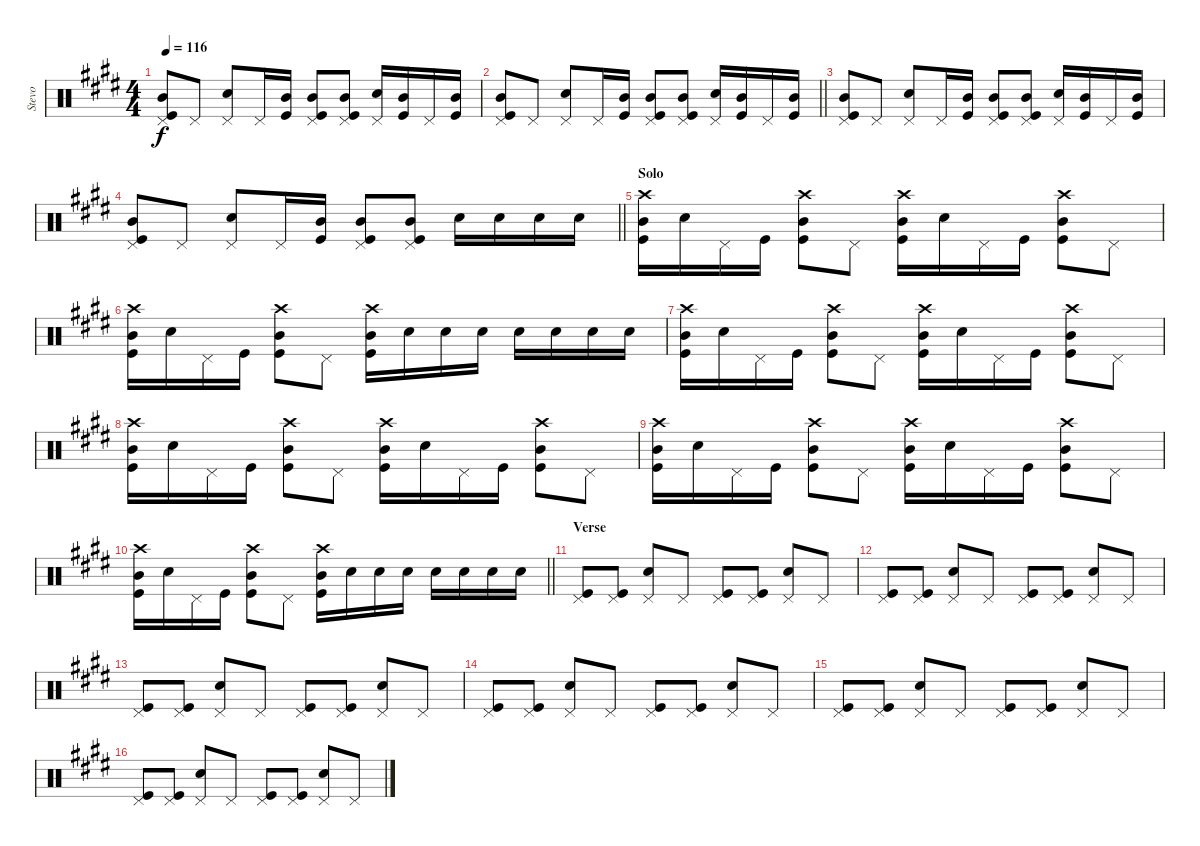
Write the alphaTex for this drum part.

\track ("Stevo" "Stevo") {instrument percussion}
\staff {score}
\articulation defaults
\ts (4 4)
\tempo 116
\clef neutral
\ks e
("Kick (hit)" "Pedal Hi-Hat (hit)" "Mid Tom (hit)").8{dy f} "Pedal Hi-Hat (hit)".8 ("Electric Snare (hit)" "Pedal Hi-Hat (hit)").8 "Pedal Hi-Hat (hit)".16 ("Kick (hit)" "Mid Tom (hit)").16 ("Kick (hit)" "Pedal Hi-Hat (hit)" "Mid Tom (hit)").8 ("Kick (hit)" "Pedal Hi-Hat (hit)" "Mid Tom (hit)").8 ("Electric Snare (hit)" "Pedal Hi-Hat (hit)").16 ("Kick (hit)" "Mid Tom (hit)").16 "Pedal Hi-Hat (hit)".16 ("Kick (hit)" "Mid Tom (hit)").16 |
\barLineRight lightlight
("Kick (hit)" "Pedal Hi-Hat (hit)" "Mid Tom (hit)").8 "Pedal Hi-Hat (hit)".8 ("Electric Snare (hit)" "Pedal Hi-Hat (hit)").8 "Pedal Hi-Hat (hit)".16 ("Kick (hit)" "Mid Tom (hit)").16 ("Kick (hit)" "Pedal Hi-Hat (hit)" "Mid Tom (hit)").8 ("Kick (hit)" "Pedal Hi-Hat (hit)" "Mid Tom (hit)").8 ("Electric Snare (hit)" "Pedal Hi-Hat (hit)").16 ("Kick (hit)" "Mid Tom (hit)").16 "Pedal Hi-Hat (hit)".16 ("Kick (hit)" "Mid Tom (hit)").16 |
("Kick (hit)" "Pedal Hi-Hat (hit)" "Mid Tom (hit)").8 "Pedal Hi-Hat (hit)".8 ("Electric Snare (hit)" "Pedal Hi-Hat (hit)").8 "Pedal Hi-Hat (hit)".16 ("Kick (hit)" "Mid Tom (hit)").16 ("Kick (hit)" "Pedal Hi-Hat (hit)" "Mid Tom (hit)").8 ("Kick (hit)" "Pedal Hi-Hat (hit)" "Mid Tom (hit)").8 ("Electric Snare (hit)" "Pedal Hi-Hat (hit)").16 ("Kick (hit)" "Mid Tom (hit)").16 "Pedal Hi-Hat (hit)".16 ("Kick (hit)" "Mid Tom (hit)").16 |
\barLineRight lightlight
("Kick (hit)" "Pedal Hi-Hat (hit)" "Mid Tom (hit)").8 "Pedal Hi-Hat (hit)".8 ("Electric Snare (hit)" "Pedal Hi-Hat (hit)").8 "Pedal Hi-Hat (hit)".16 ("Kick (hit)" "Mid Tom (hit)").16 ("Kick (hit)" "Pedal Hi-Hat (hit)" "Mid Tom (hit)").8 ("Kick (hit)" "Pedal Hi-Hat (hit)" "Mid Tom (hit)").8 "Electric Snare (hit)".16 "Electric Snare (hit)".16 "Electric Snare (hit)".16 "Electric Snare (hit)".16 |
\section ("" "Solo")
("Kick (hit)" "Crash high (hit)" "Mid Tom (hit)").16 "Electric Snare (hit)".16 "Pedal Hi-Hat (hit)".16 "Kick (hit)".16 ("Kick (hit)" "Crash high (hit)" "Mid Tom (hit)").8 "Pedal Hi-Hat (hit)".8 ("Kick (hit)" "Crash high (hit)" "Mid Tom (hit)").16 "Electric Snare (hit)".16 "Pedal Hi-Hat (hit)".16 "Kick (hit)".16 ("Kick (hit)" "Crash high (hit)" "Mid Tom (hit)").8 "Pedal Hi-Hat (hit)".8 |
("Kick (hit)" "Crash high (hit)" "Mid Tom (hit)").16 "Electric Snare (hit)".16 "Pedal Hi-Hat (hit)".16 "Kick (hit)".16 ("Kick (hit)" "Crash high (hit)" "Mid Tom (hit)").8 "Pedal Hi-Hat (hit)".8 ("Kick (hit)" "Crash high (hit)" "Mid Tom (hit)").16 "Electric Snare (hit)".16 "Electric Snare (hit)".16 "Electric Snare (hit)".16 "Electric Snare (hit)".16 "Electric Snare (hit)".16 "Electric Snare (hit)".16 "Electric Snare (hit)".16 |
("Kick (hit)" "Crash high (hit)" "Mid Tom (hit)").16 "Electric Snare (hit)".16 "Pedal Hi-Hat (hit)".16 "Kick (hit)".16 ("Kick (hit)" "Crash high (hit)" "Mid Tom (hit)").8 "Pedal Hi-Hat (hit)".8 ("Kick (hit)" "Crash high (hit)" "Mid Tom (hit)").16 "Electric Snare (hit)".16 "Pedal Hi-Hat (hit)".16 "Kick (hit)".16 ("Kick (hit)" "Crash high (hit)" "Mid Tom (hit)").8 "Pedal Hi-Hat (hit)".8 |
("Kick (hit)" "Crash high (hit)" "Mid Tom (hit)").16 "Electric Snare (hit)".16 "Pedal Hi-Hat (hit)".16 "Kick (hit)".16 ("Kick (hit)" "Crash high (hit)" "Mid Tom (hit)").8 "Pedal Hi-Hat (hit)".8 ("Kick (hit)" "Crash high (hit)" "Mid Tom (hit)").16 "Electric Snare (hit)".16 "Pedal Hi-Hat (hit)".16 "Kick (hit)".16 ("Kick (hit)" "Crash high (hit)" "Mid Tom (hit)").8 "Pedal Hi-Hat (hit)".8 |
("Kick (hit)" "Crash high (hit)" "Mid Tom (hit)").16 "Electric Snare (hit)".16 "Pedal Hi-Hat (hit)".16 "Kick (hit)".16 ("Kick (hit)" "Crash high (hit)" "Mid Tom (hit)").8 "Pedal Hi-Hat (hit)".8 ("Kick (hit)" "Crash high (hit)" "Mid Tom (hit)").16 "Electric Snare (hit)".16 "Pedal Hi-Hat (hit)".16 "Kick (hit)".16 ("Kick (hit)" "Crash high (hit)" "Mid Tom (hit)").8 "Pedal Hi-Hat (hit)".8 |
\barLineRight lightlight
("Kick (hit)" "Crash high (hit)" "Mid Tom (hit)").16 "Electric Snare (hit)".16 "Pedal Hi-Hat (hit)".16 "Kick (hit)".16 ("Kick (hit)" "Crash high (hit)" "Mid Tom (hit)").8 "Pedal Hi-Hat (hit)".8 ("Kick (hit)" "Crash high (hit)" "Mid Tom (hit)").16 "Electric Snare (hit)".16 "Electric Snare (hit)".16 "Electric Snare (hit)".16 "Electric Snare (hit)".16 "Electric Snare (hit)".16 "Electric Snare (hit)".16 "Electric Snare (hit)".16 |
\section ("" "Verse")
("Kick (hit)" "Pedal Hi-Hat (hit)").8 ("Kick (hit)" "Pedal Hi-Hat (hit)").8 ("Electric Snare (hit)" "Pedal Hi-Hat (hit)").8 "Pedal Hi-Hat (hit)".8 ("Kick (hit)" "Pedal Hi-Hat (hit)").8 ("Kick (hit)" "Pedal Hi-Hat (hit)").8 ("Electric Snare (hit)" "Pedal Hi-Hat (hit)").8 "Pedal Hi-Hat (hit)".8 |
("Kick (hit)" "Pedal Hi-Hat (hit)").8 ("Kick (hit)" "Pedal Hi-Hat (hit)").8 ("Electric Snare (hit)" "Pedal Hi-Hat (hit)").8 "Pedal Hi-Hat (hit)".8 ("Kick (hit)" "Pedal Hi-Hat (hit)").8 ("Kick (hit)" "Pedal Hi-Hat (hit)").8 ("Electric Snare (hit)" "Pedal Hi-Hat (hit)").8 "Pedal Hi-Hat (hit)".8 |
("Kick (hit)" "Pedal Hi-Hat (hit)").8 ("Kick (hit)" "Pedal Hi-Hat (hit)").8 ("Electric Snare (hit)" "Pedal Hi-Hat (hit)").8 "Pedal Hi-Hat (hit)".8 ("Kick (hit)" "Pedal Hi-Hat (hit)").8 ("Kick (hit)" "Pedal Hi-Hat (hit)").8 ("Electric Snare (hit)" "Pedal Hi-Hat (hit)").8 "Pedal Hi-Hat (hit)".8 |
("Kick (hit)" "Pedal Hi-Hat (hit)").8 ("Kick (hit)" "Pedal Hi-Hat (hit)").8 ("Electric Snare (hit)" "Pedal Hi-Hat (hit)").8 "Pedal Hi-Hat (hit)".8 ("Kick (hit)" "Pedal Hi-Hat (hit)").8 ("Kick (hit)" "Pedal Hi-Hat (hit)").8 ("Electric Snare (hit)" "Pedal Hi-Hat (hit)").8 "Pedal Hi-Hat (hit)".8 |
("Kick (hit)" "Pedal Hi-Hat (hit)").8 ("Kick (hit)" "Pedal Hi-Hat (hit)").8 ("Electric Snare (hit)" "Pedal Hi-Hat (hit)").8 "Pedal Hi-Hat (hit)".8 ("Kick (hit)" "Pedal Hi-Hat (hit)").8 ("Kick (hit)" "Pedal Hi-Hat (hit)").8 ("Electric Snare (hit)" "Pedal Hi-Hat (hit)").8 "Pedal Hi-Hat (hit)".8 |
("Kick (hit)" "Pedal Hi-Hat (hit)").8 ("Kick (hit)" "Pedal Hi-Hat (hit)").8 ("Electric Snare (hit)" "Pedal Hi-Hat (hit)").8 "Pedal Hi-Hat (hit)".8 ("Kick (hit)" "Pedal Hi-Hat (hit)").8 ("Kick (hit)" "Pedal Hi-Hat (hit)").8 ("Electric Snare (hit)" "Pedal Hi-Hat (hit)").8 "Pedal Hi-Hat (hit)".8
